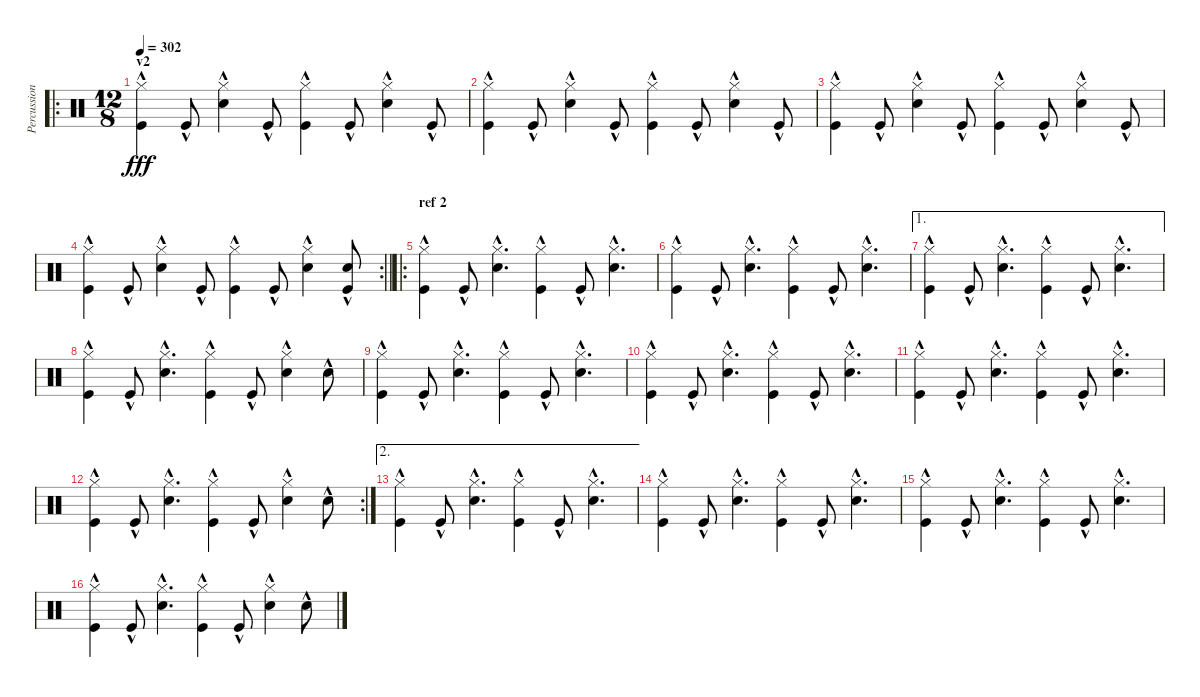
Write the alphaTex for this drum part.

\track ("Percussion" "Percussion") {instrument percussion}
\staff {score}
\articulation defaults
\ro
\ts (12 8)
\section ("" "v2")
\tempo 302
\clef neutral
\ks c
("Hi-Hat (closed)"{hac} "Kick (hit)"{hac}).4{dy fff} "Kick (hit)"{hac}.8 ("Hi-Hat (closed)"{hac} "Electric Snare (hit)"{hac}).4 "Kick (hit)"{hac}.8 ("Hi-Hat (closed)"{hac} "Kick (hit)"{hac}).4 "Kick (hit)"{hac}.8 ("Hi-Hat (closed)"{hac} "Electric Snare (hit)"{hac}).4 "Kick (hit)"{hac}.8 |
("Hi-Hat (closed)"{hac} "Kick (hit)"{hac}).4 "Kick (hit)"{hac}.8 ("Hi-Hat (closed)"{hac} "Electric Snare (hit)"{hac}).4 "Kick (hit)"{hac}.8 ("Hi-Hat (closed)"{hac} "Kick (hit)"{hac}).4 "Kick (hit)"{hac}.8 ("Hi-Hat (closed)"{hac} "Electric Snare (hit)"{hac}).4 "Kick (hit)"{hac}.8 |
("Hi-Hat (closed)"{hac} "Kick (hit)"{hac}).4 "Kick (hit)"{hac}.8 ("Hi-Hat (closed)"{hac} "Electric Snare (hit)"{hac}).4 "Kick (hit)"{hac}.8 ("Hi-Hat (closed)"{hac} "Kick (hit)"{hac}).4 "Kick (hit)"{hac}.8 ("Hi-Hat (closed)"{hac} "Electric Snare (hit)"{hac}).4 "Kick (hit)"{hac}.8 |
\rc 2
\barLineRight lightlight
("Hi-Hat (closed)"{hac} "Kick (hit)"{hac}).4 "Kick (hit)"{hac}.8 ("Hi-Hat (closed)"{hac} "Electric Snare (hit)"{hac}).4 "Kick (hit)"{hac}.8 ("Hi-Hat (closed)"{hac} "Kick (hit)"{hac}).4 "Kick (hit)"{hac}.8 ("Hi-Hat (closed)"{hac} "Electric Snare (hit)"{hac}).4 ("Electric Snare (hit)"{hac} "Kick (hit)"{hac}).8 |
\ro
\section ("" "ref 2")
("Hi-Hat (closed)"{hac} "Kick (hit)"{hac}).4 "Kick (hit)"{hac}.8 ("Hi-Hat (closed)"{hac} "Electric Snare (hit)"{hac}).4{d} ("Hi-Hat (closed)"{hac} "Kick (hit)"{hac}).4 "Kick (hit)"{hac}.8 ("Hi-Hat (closed)"{hac} "Electric Snare (hit)"{hac}).4{d} |
("Hi-Hat (closed)"{hac} "Kick (hit)"{hac}).4 "Kick (hit)"{hac}.8 ("Hi-Hat (closed)"{hac} "Electric Snare (hit)"{hac}).4{d} ("Hi-Hat (closed)"{hac} "Kick (hit)"{hac}).4 "Kick (hit)"{hac}.8 ("Hi-Hat (closed)"{hac} "Electric Snare (hit)"{hac}).4{d} |
\ae 1
("Hi-Hat (closed)"{hac} "Kick (hit)"{hac}).4 "Kick (hit)"{hac}.8 ("Hi-Hat (closed)"{hac} "Electric Snare (hit)"{hac}).4{d} ("Hi-Hat (closed)"{hac} "Kick (hit)"{hac}).4 "Kick (hit)"{hac}.8 ("Hi-Hat (closed)"{hac} "Electric Snare (hit)"{hac}).4{d} |
("Hi-Hat (closed)"{hac} "Kick (hit)"{hac}).4 "Kick (hit)"{hac}.8 ("Hi-Hat (closed)"{hac} "Electric Snare (hit)"{hac}).4{d} ("Hi-Hat (closed)"{hac} "Kick (hit)"{hac}).4 "Kick (hit)"{hac}.8 ("Hi-Hat (closed)"{hac} "Electric Snare (hit)"{hac}).4 "Electric Snare (hit)"{hac}.8 |
("Hi-Hat (closed)"{hac} "Kick (hit)"{hac}).4 "Kick (hit)"{hac}.8 ("Hi-Hat (closed)"{hac} "Electric Snare (hit)"{hac}).4{d} ("Hi-Hat (closed)"{hac} "Kick (hit)"{hac}).4 "Kick (hit)"{hac}.8 ("Hi-Hat (closed)"{hac} "Electric Snare (hit)"{hac}).4{d} |
("Hi-Hat (closed)"{hac} "Kick (hit)"{hac}).4 "Kick (hit)"{hac}.8 ("Hi-Hat (closed)"{hac} "Electric Snare (hit)"{hac}).4{d} ("Hi-Hat (closed)"{hac} "Kick (hit)"{hac}).4 "Kick (hit)"{hac}.8 ("Hi-Hat (closed)"{hac} "Electric Snare (hit)"{hac}).4{d} |
("Hi-Hat (closed)"{hac} "Kick (hit)"{hac}).4 "Kick (hit)"{hac}.8 ("Hi-Hat (closed)"{hac} "Electric Snare (hit)"{hac}).4{d} ("Hi-Hat (closed)"{hac} "Kick (hit)"{hac}).4 "Kick (hit)"{hac}.8 ("Hi-Hat (closed)"{hac} "Electric Snare (hit)"{hac}).4{d} |
\rc 2
("Hi-Hat (closed)"{hac} "Kick (hit)"{hac}).4 "Kick (hit)"{hac}.8 ("Hi-Hat (closed)"{hac} "Electric Snare (hit)"{hac}).4{d} ("Hi-Hat (closed)"{hac} "Kick (hit)"{hac}).4 "Kick (hit)"{hac}.8 ("Hi-Hat (closed)"{hac} "Electric Snare (hit)"{hac}).4 "Electric Snare (hit)"{hac}.8 |
\ae 2
("Hi-Hat (closed)"{hac} "Kick (hit)"{hac}).4 "Kick (hit)"{hac}.8 ("Hi-Hat (closed)"{hac} "Electric Snare (hit)"{hac}).4{d} ("Hi-Hat (closed)"{hac} "Kick (hit)"{hac}).4 "Kick (hit)"{hac}.8 ("Hi-Hat (closed)"{hac} "Electric Snare (hit)"{hac}).4{d} |
("Hi-Hat (closed)"{hac} "Kick (hit)"{hac}).4 "Kick (hit)"{hac}.8 ("Hi-Hat (closed)"{hac} "Electric Snare (hit)"{hac}).4{d} ("Hi-Hat (closed)"{hac} "Kick (hit)"{hac}).4 "Kick (hit)"{hac}.8 ("Hi-Hat (closed)"{hac} "Electric Snare (hit)"{hac}).4{d} |
("Hi-Hat (closed)"{hac} "Kick (hit)"{hac}).4 "Kick (hit)"{hac}.8 ("Hi-Hat (closed)"{hac} "Electric Snare (hit)"{hac}).4{d} ("Hi-Hat (closed)"{hac} "Kick (hit)"{hac}).4 "Kick (hit)"{hac}.8 ("Hi-Hat (closed)"{hac} "Electric Snare (hit)"{hac}).4{d} |
("Hi-Hat (closed)"{hac} "Kick (hit)"{hac}).4 "Kick (hit)"{hac}.8 ("Hi-Hat (closed)"{hac} "Electric Snare (hit)"{hac}).4{d} ("Hi-Hat (closed)"{hac} "Kick (hit)"{hac}).4 "Kick (hit)"{hac}.8 ("Hi-Hat (closed)"{hac} "Electric Snare (hit)"{hac}).4 "Electric Snare (hit)"{hac}.8
